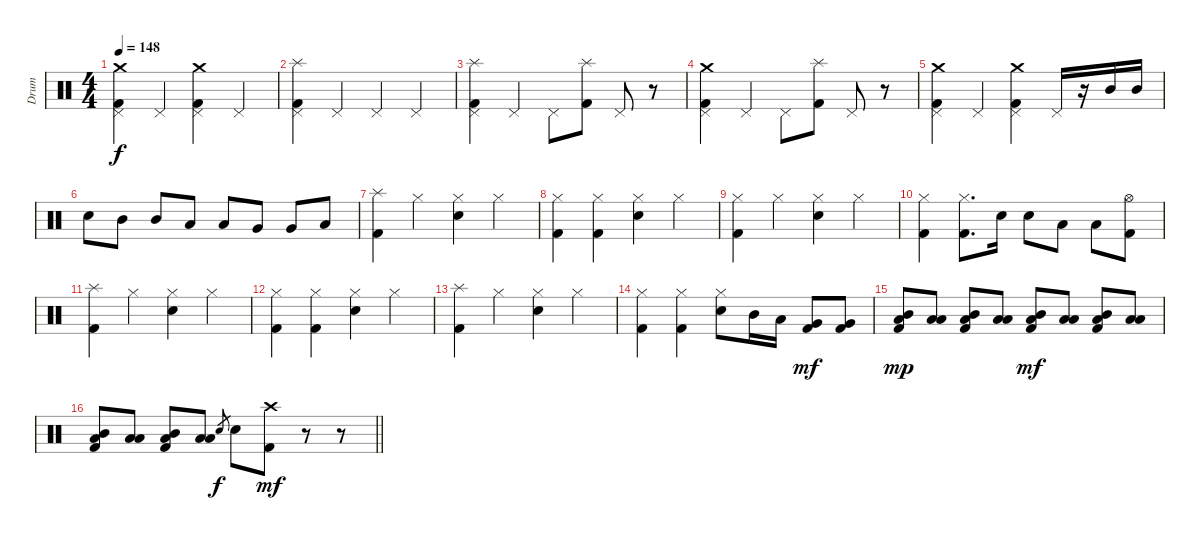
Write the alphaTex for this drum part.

\track ("Drum" "Drum") {instrument percussion}
\staff {score}
\articulation defaults
\ts (4 4)
\tempo 148
\clef neutral
\ks c
("Pedal Hi-Hat (hit)" "Kick (hit) 2" "Crash medium (hit)").4{dy f} "Pedal Hi-Hat (hit)".4 ("Pedal Hi-Hat (hit)" "Kick (hit) 2" "Crash medium (hit)").4 "Pedal Hi-Hat (hit)".4 |
("Pedal Hi-Hat (hit)" "Kick (hit) 2" "Splash (hit)").4 "Pedal Hi-Hat (hit)".4 "Pedal Hi-Hat (hit)".4 "Pedal Hi-Hat (hit)".4 |
("Pedal Hi-Hat (hit)" "Kick (hit) 2" "Splash (hit)").4 "Pedal Hi-Hat (hit)".4 "Pedal Hi-Hat (hit)".8 ("Kick (hit) 2" "Splash (hit)").8 "Pedal Hi-Hat (hit)".8 r.8 |
("Pedal Hi-Hat (hit)" "Kick (hit) 2" "Crash medium (hit)").4 "Pedal Hi-Hat (hit)".4 "Pedal Hi-Hat (hit)".8 ("Kick (hit) 2" "Splash (hit)").8 "Pedal Hi-Hat (hit)".8 r.8 |
("Pedal Hi-Hat (hit)" "Kick (hit) 2" "Crash medium (hit)").4 "Pedal Hi-Hat (hit)".4 ("Pedal Hi-Hat (hit)" "Kick (hit) 2" "Crash medium (hit)").4 "Pedal Hi-Hat (hit)".16 r.16 "Mid Tom (hit)".16 "Mid Tom (hit)".16 |
"Electric Snare (hit)".8 "Mid Tom (hit)".8 "Mid Tom (hit)".8 "Low Tom (hit)".8 "Low Tom (hit)".8 "Very Low Tom (hit)".8 "Very Low Tom (hit)".8 "Low Floor Tom (hit)".8 |
("Kick (hit) 2" "Splash (hit)").4 "Hi-Hat (closed)".4 ("Electric Snare (hit)" "Hi-Hat (closed)").4 "Hi-Hat (closed)".4 |
("Kick (hit) 2" "Hi-Hat (closed)").4 ("Kick (hit) 2" "Hi-Hat (closed)").4 ("Electric Snare (hit)" "Hi-Hat (closed)").4 "Hi-Hat (closed)".4 |
("Kick (hit) 2" "Hi-Hat (closed)").4 "Hi-Hat (closed)".4 ("Electric Snare (hit)" "Hi-Hat (closed)").4 "Hi-Hat (closed)".4 |
("Kick (hit) 2" "Hi-Hat (closed)").4 ("Kick (hit) 2" "Hi-Hat (closed)").8{d} "Electric Snare (hit)".16 "Electric Snare (hit)".8 "Low Tom (hit)".8 "Low Tom (hit)".8 ("Hi-Hat (open)" "Kick (hit) 2").8 |
("Kick (hit) 2" "Splash (hit)").4 "Hi-Hat (closed)".4 ("Electric Snare (hit)" "Hi-Hat (closed)").4 "Hi-Hat (closed)".4 |
("Kick (hit) 2" "Hi-Hat (closed)").4 ("Kick (hit) 2" "Hi-Hat (closed)").4 ("Electric Snare (hit)" "Hi-Hat (closed)").4 "Hi-Hat (closed)".4 |
("Kick (hit) 2" "Splash (hit)").4 "Hi-Hat (closed)".4 ("Electric Snare (hit)" "Hi-Hat (closed)").4 "Hi-Hat (closed)".4 |
("Kick (hit) 2" "Hi-Hat (closed)").4 ("Kick (hit) 2" "Hi-Hat (closed)").4 ("Electric Snare (hit)" "Hi-Hat (closed)").8 "Mid Tom (hit)".16 "Low Tom (hit)".16 ("Very Low Tom (hit)" "Kick (hit) 2").8{dy mf} ("Very Low Tom (hit)" "Kick (hit) 2").8 |
("Mid Tom (hit)" "Low Floor Tom (hit)" "Kick (hit) 2").8{dy mp} ("Low Tom (hit)" "Low Floor Tom (hit)").8 ("Mid Tom (hit)" "Low Floor Tom (hit)" "Kick (hit) 2").8 ("Low Tom (hit)" "Low Floor Tom (hit)").8 ("Mid Tom (hit)" "Low Floor Tom (hit)" "Kick (hit) 2").8{dy mf} ("Low Tom (hit)" "Low Floor Tom (hit)").8 ("Mid Tom (hit)" "Low Floor Tom (hit)" "Kick (hit) 2").8 ("Low Tom (hit)" "Low Floor Tom (hit)").8 |
\barLineRight lightlight
("Mid Tom (hit)" "Low Floor Tom (hit)" "Kick (hit) 2").8 ("Low Tom (hit)" "Low Floor Tom (hit)").8 ("Mid Tom (hit)" "Low Floor Tom (hit)" "Kick (hit) 2").8 ("Low Tom (hit)" "Low Floor Tom (hit)").8 "Electric Snare (hit)".8{gr dy f} "Electric Snare (hit)".8 ("Kick (hit) 2" "Crash high (hit)").8{dy mf} r.8 r.8
